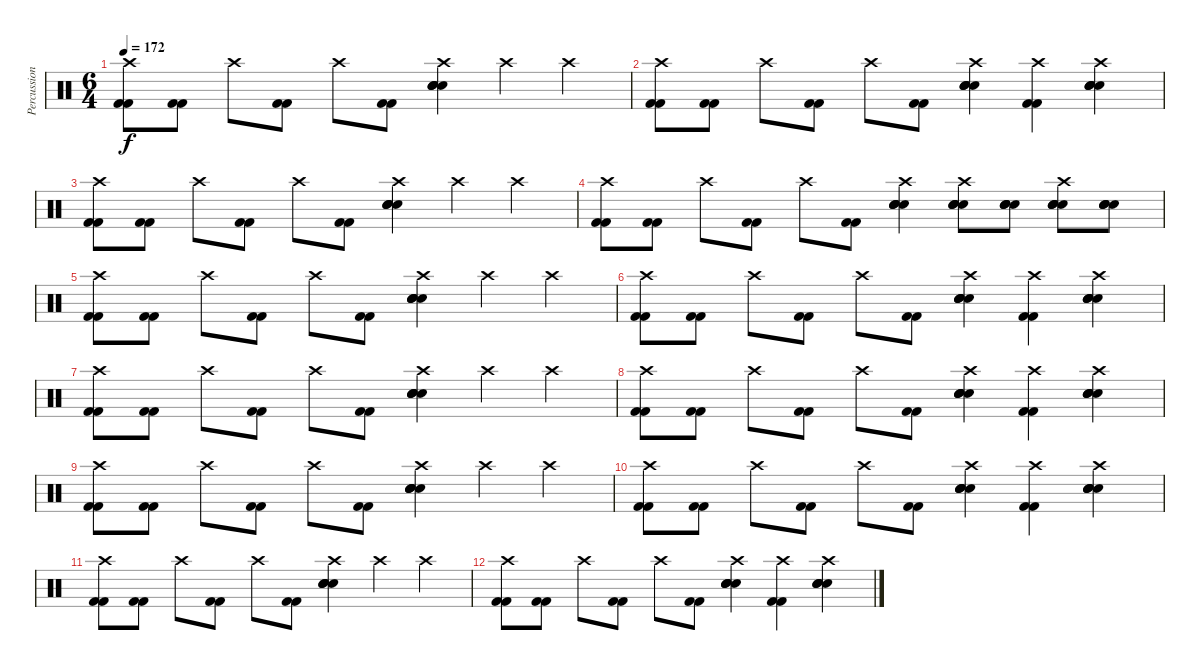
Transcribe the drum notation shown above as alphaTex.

\track ("Percussion" "Percussion") {instrument percussion}
\staff {score}
\articulation defaults
\ts (6 4)
\tempo 172
\clef neutral
\ks c
("Crash high (hit)" "Kick (hit) 2" "Kick (hit) 2").8{dy f volume 16} ("Kick (hit) 2" "Kick (hit) 2").8 "Crash high (hit)".8 ("Kick (hit) 2" "Kick (hit) 2").8 "Crash high (hit)".8 ("Kick (hit) 2" "Kick (hit) 2").8 ("Crash high (hit)" "Electric Snare (hit)" "Electric Snare (hit)" "Electric Snare (hit)" "Electric Snare (hit)").4 "Crash high (hit)".4 "Crash high (hit)".4 |
("Crash high (hit)" "Kick (hit) 2" "Kick (hit) 2").8 ("Kick (hit) 2" "Kick (hit) 2").8 "Crash high (hit)".8 ("Kick (hit) 2" "Kick (hit) 2").8 "Crash high (hit)".8 ("Kick (hit) 2" "Kick (hit) 2").8 ("Crash high (hit)" "Electric Snare (hit)" "Electric Snare (hit)" "Electric Snare (hit)" "Electric Snare (hit)").4 ("Crash high (hit)" "Kick (hit) 2" "Kick (hit) 2").4 ("Crash high (hit)" "Electric Snare (hit)" "Electric Snare (hit)" "Electric Snare (hit)" "Electric Snare (hit)").4 |
("Crash high (hit)" "Kick (hit) 2" "Kick (hit) 2").8{volume 16} ("Kick (hit) 2" "Kick (hit) 2").8 "Crash high (hit)".8 ("Kick (hit) 2" "Kick (hit) 2").8 "Crash high (hit)".8 ("Kick (hit) 2" "Kick (hit) 2").8 ("Crash high (hit)" "Electric Snare (hit)" "Electric Snare (hit)" "Electric Snare (hit)" "Electric Snare (hit)").4 "Crash high (hit)".4 "Crash high (hit)".4 |
("Crash high (hit)" "Kick (hit) 2" "Kick (hit) 2").8 ("Kick (hit) 2" "Kick (hit) 2").8 "Crash high (hit)".8 ("Kick (hit) 2" "Kick (hit) 2").8 "Crash high (hit)".8 ("Kick (hit) 2" "Kick (hit) 2").8 ("Crash high (hit)" "Electric Snare (hit)" "Electric Snare (hit)" "Electric Snare (hit)" "Electric Snare (hit)").4 ("Crash high (hit)" "Electric Snare (hit)" "Electric Snare (hit)" "Electric Snare (hit)" "Electric Snare (hit)").8 ("Electric Snare (hit)" "Electric Snare (hit)" "Electric Snare (hit)" "Electric Snare (hit)").8 ("Crash high (hit)" "Electric Snare (hit)" "Electric Snare (hit)" "Electric Snare (hit)" "Electric Snare (hit)").8 ("Electric Snare (hit)" "Electric Snare (hit)" "Electric Snare (hit)" "Electric Snare (hit)").8 |
("Crash high (hit)" "Kick (hit) 2" "Kick (hit) 2").8{volume 16} ("Kick (hit) 2" "Kick (hit) 2").8 "Crash high (hit)".8 ("Kick (hit) 2" "Kick (hit) 2").8 "Crash high (hit)".8 ("Kick (hit) 2" "Kick (hit) 2").8 ("Crash high (hit)" "Electric Snare (hit)" "Electric Snare (hit)" "Electric Snare (hit)" "Electric Snare (hit)").4 "Crash high (hit)".4 "Crash high (hit)".4 |
("Crash high (hit)" "Kick (hit) 2" "Kick (hit) 2").8 ("Kick (hit) 2" "Kick (hit) 2").8 "Crash high (hit)".8 ("Kick (hit) 2" "Kick (hit) 2").8 "Crash high (hit)".8 ("Kick (hit) 2" "Kick (hit) 2").8 ("Crash high (hit)" "Electric Snare (hit)" "Electric Snare (hit)" "Electric Snare (hit)" "Electric Snare (hit)").4 ("Crash high (hit)" "Kick (hit) 2" "Kick (hit) 2").4 ("Crash high (hit)" "Electric Snare (hit)" "Electric Snare (hit)" "Electric Snare (hit)" "Electric Snare (hit)").4 |
("Crash high (hit)" "Kick (hit) 2" "Kick (hit) 2").8{volume 16} ("Kick (hit) 2" "Kick (hit) 2").8 "Crash high (hit)".8 ("Kick (hit) 2" "Kick (hit) 2").8 "Crash high (hit)".8 ("Kick (hit) 2" "Kick (hit) 2").8 ("Crash high (hit)" "Electric Snare (hit)" "Electric Snare (hit)" "Electric Snare (hit)" "Electric Snare (hit)").4 "Crash high (hit)".4 "Crash high (hit)".4 |
("Crash high (hit)" "Kick (hit) 2" "Kick (hit) 2").8 ("Kick (hit) 2" "Kick (hit) 2").8 "Crash high (hit)".8 ("Kick (hit) 2" "Kick (hit) 2").8 "Crash high (hit)".8 ("Kick (hit) 2" "Kick (hit) 2").8 ("Crash high (hit)" "Electric Snare (hit)" "Electric Snare (hit)" "Electric Snare (hit)" "Electric Snare (hit)").4 ("Crash high (hit)" "Kick (hit) 2" "Kick (hit) 2").4 ("Crash high (hit)" "Electric Snare (hit)" "Electric Snare (hit)" "Electric Snare (hit)" "Electric Snare (hit)").4 |
("Crash high (hit)" "Kick (hit) 2" "Kick (hit) 2").8{volume 16} ("Kick (hit) 2" "Kick (hit) 2").8 "Crash high (hit)".8 ("Kick (hit) 2" "Kick (hit) 2").8 "Crash high (hit)".8 ("Kick (hit) 2" "Kick (hit) 2").8 ("Crash high (hit)" "Electric Snare (hit)" "Electric Snare (hit)" "Electric Snare (hit)" "Electric Snare (hit)").4 "Crash high (hit)".4 "Crash high (hit)".4 |
("Crash high (hit)" "Kick (hit) 2" "Kick (hit) 2").8 ("Kick (hit) 2" "Kick (hit) 2").8 "Crash high (hit)".8 ("Kick (hit) 2" "Kick (hit) 2").8 "Crash high (hit)".8 ("Kick (hit) 2" "Kick (hit) 2").8 ("Crash high (hit)" "Electric Snare (hit)" "Electric Snare (hit)" "Electric Snare (hit)" "Electric Snare (hit)").4 ("Crash high (hit)" "Kick (hit) 2" "Kick (hit) 2").4 ("Crash high (hit)" "Electric Snare (hit)" "Electric Snare (hit)" "Electric Snare (hit)" "Electric Snare (hit)").4 |
("Crash high (hit)" "Kick (hit) 2" "Kick (hit) 2").8{volume 16} ("Kick (hit) 2" "Kick (hit) 2").8 "Crash high (hit)".8 ("Kick (hit) 2" "Kick (hit) 2").8 "Crash high (hit)".8 ("Kick (hit) 2" "Kick (hit) 2").8 ("Crash high (hit)" "Electric Snare (hit)" "Electric Snare (hit)" "Electric Snare (hit)" "Electric Snare (hit)").4 "Crash high (hit)".4 "Crash high (hit)".4 |
("Crash high (hit)" "Kick (hit) 2" "Kick (hit) 2").8 ("Kick (hit) 2" "Kick (hit) 2").8 "Crash high (hit)".8 ("Kick (hit) 2" "Kick (hit) 2").8 "Crash high (hit)".8 ("Kick (hit) 2" "Kick (hit) 2").8 ("Crash high (hit)" "Electric Snare (hit)" "Electric Snare (hit)" "Electric Snare (hit)" "Electric Snare (hit)").4 ("Crash high (hit)" "Kick (hit) 2" "Kick (hit) 2").4 ("Crash high (hit)" "Electric Snare (hit)" "Electric Snare (hit)" "Electric Snare (hit)" "Electric Snare (hit)").4
